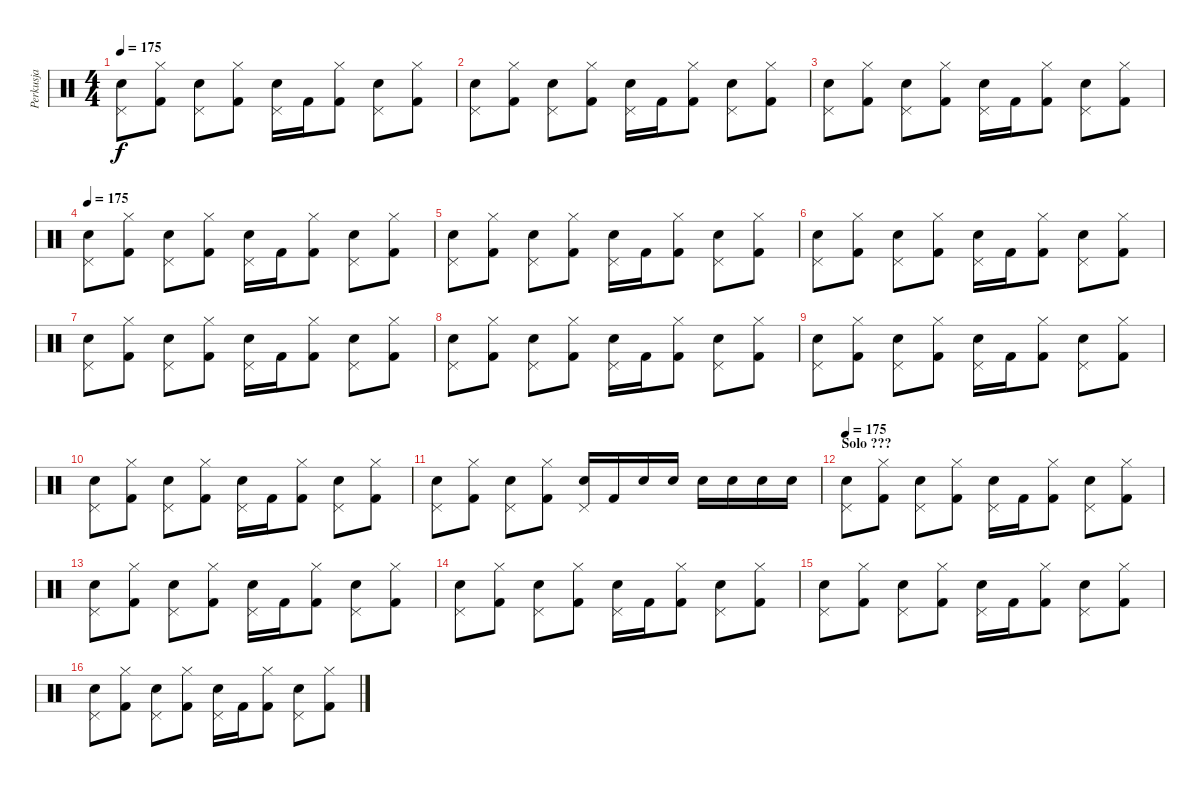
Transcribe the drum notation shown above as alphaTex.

\track ("Perkusja" "Perkusja") {instrument percussion}
\staff {score}
\articulation defaults
\ts (4 4)
\tempo 175
\clef neutral
\ks c
("Snare (hit) 2" "Pedal Hi-Hat (hit)").8{dy f} ("Kick (hit) 2" "Hi-Hat (closed)").8 ("Snare (hit) 2" "Pedal Hi-Hat (hit)").8 ("Kick (hit) 2" "Hi-Hat (closed)").8 ("Snare (hit) 2" "Pedal Hi-Hat (hit)").16 "Kick (hit) 2".16 ("Kick (hit) 2" "Hi-Hat (closed)").8 ("Snare (hit) 2" "Pedal Hi-Hat (hit)").8 ("Kick (hit) 2" "Hi-Hat (closed)").8 |
("Snare (hit) 2" "Pedal Hi-Hat (hit)").8 ("Kick (hit) 2" "Hi-Hat (closed)").8 ("Snare (hit) 2" "Pedal Hi-Hat (hit)").8 ("Kick (hit) 2" "Hi-Hat (closed)").8 ("Snare (hit) 2" "Pedal Hi-Hat (hit)").16 "Kick (hit) 2".16 ("Kick (hit) 2" "Hi-Hat (closed)").8 ("Snare (hit) 2" "Pedal Hi-Hat (hit)").8 ("Kick (hit) 2" "Hi-Hat (closed)").8 |
("Snare (hit) 2" "Pedal Hi-Hat (hit)").8 ("Kick (hit) 2" "Hi-Hat (closed)").8 ("Snare (hit) 2" "Pedal Hi-Hat (hit)").8 ("Kick (hit) 2" "Hi-Hat (closed)").8 ("Snare (hit) 2" "Pedal Hi-Hat (hit)").16 "Kick (hit) 2".16 ("Kick (hit) 2" "Hi-Hat (closed)").8 ("Snare (hit) 2" "Pedal Hi-Hat (hit)").8 ("Kick (hit) 2" "Hi-Hat (closed)").8 |
\tempo 175
("Snare (hit) 2" "Pedal Hi-Hat (hit)").8 ("Kick (hit) 2" "Hi-Hat (closed)").8 ("Snare (hit) 2" "Pedal Hi-Hat (hit)").8 ("Kick (hit) 2" "Hi-Hat (closed)").8 ("Snare (hit) 2" "Pedal Hi-Hat (hit)").16 "Kick (hit) 2".16 ("Kick (hit) 2" "Hi-Hat (closed)").8 ("Snare (hit) 2" "Pedal Hi-Hat (hit)").8 ("Kick (hit) 2" "Hi-Hat (closed)").8 |
("Snare (hit) 2" "Pedal Hi-Hat (hit)").8 ("Kick (hit) 2" "Hi-Hat (closed)").8 ("Snare (hit) 2" "Pedal Hi-Hat (hit)").8 ("Kick (hit) 2" "Hi-Hat (closed)").8 ("Snare (hit) 2" "Pedal Hi-Hat (hit)").16 "Kick (hit) 2".16 ("Kick (hit) 2" "Hi-Hat (closed)").8 ("Snare (hit) 2" "Pedal Hi-Hat (hit)").8 ("Kick (hit) 2" "Hi-Hat (closed)").8 |
("Snare (hit) 2" "Pedal Hi-Hat (hit)").8 ("Kick (hit) 2" "Hi-Hat (closed)").8 ("Snare (hit) 2" "Pedal Hi-Hat (hit)").8 ("Kick (hit) 2" "Hi-Hat (closed)").8 ("Snare (hit) 2" "Pedal Hi-Hat (hit)").16 "Kick (hit) 2".16 ("Kick (hit) 2" "Hi-Hat (closed)").8 ("Snare (hit) 2" "Pedal Hi-Hat (hit)").8 ("Kick (hit) 2" "Hi-Hat (closed)").8 |
("Snare (hit) 2" "Pedal Hi-Hat (hit)").8 ("Kick (hit) 2" "Hi-Hat (closed)").8 ("Snare (hit) 2" "Pedal Hi-Hat (hit)").8 ("Kick (hit) 2" "Hi-Hat (closed)").8 ("Snare (hit) 2" "Pedal Hi-Hat (hit)").16 "Kick (hit) 2".16 ("Kick (hit) 2" "Hi-Hat (closed)").8 ("Snare (hit) 2" "Pedal Hi-Hat (hit)").8 ("Kick (hit) 2" "Hi-Hat (closed)").8 |
("Snare (hit) 2" "Pedal Hi-Hat (hit)").8 ("Kick (hit) 2" "Hi-Hat (closed)").8 ("Snare (hit) 2" "Pedal Hi-Hat (hit)").8 ("Kick (hit) 2" "Hi-Hat (closed)").8 ("Snare (hit) 2" "Pedal Hi-Hat (hit)").16 "Kick (hit) 2".16 ("Kick (hit) 2" "Hi-Hat (closed)").8 ("Snare (hit) 2" "Pedal Hi-Hat (hit)").8 ("Kick (hit) 2" "Hi-Hat (closed)").8 |
("Snare (hit) 2" "Pedal Hi-Hat (hit)").8 ("Kick (hit) 2" "Hi-Hat (closed)").8 ("Snare (hit) 2" "Pedal Hi-Hat (hit)").8 ("Kick (hit) 2" "Hi-Hat (closed)").8 ("Snare (hit) 2" "Pedal Hi-Hat (hit)").16 "Kick (hit) 2".16 ("Kick (hit) 2" "Hi-Hat (closed)").8 ("Snare (hit) 2" "Pedal Hi-Hat (hit)").8 ("Kick (hit) 2" "Hi-Hat (closed)").8 |
("Snare (hit) 2" "Pedal Hi-Hat (hit)").8 ("Kick (hit) 2" "Hi-Hat (closed)").8 ("Snare (hit) 2" "Pedal Hi-Hat (hit)").8 ("Kick (hit) 2" "Hi-Hat (closed)").8 ("Snare (hit) 2" "Pedal Hi-Hat (hit)").16 "Kick (hit) 2".16 ("Kick (hit) 2" "Hi-Hat (closed)").8 ("Snare (hit) 2" "Pedal Hi-Hat (hit)").8 ("Kick (hit) 2" "Hi-Hat (closed)").8 |
("Snare (hit) 2" "Pedal Hi-Hat (hit)").8 ("Kick (hit) 2" "Hi-Hat (closed)").8 ("Snare (hit) 2" "Pedal Hi-Hat (hit)").8 ("Kick (hit) 2" "Hi-Hat (closed)").8 ("Snare (hit) 2" "Pedal Hi-Hat (hit)").16 "Kick (hit) 2".16 "Snare (hit) 2".16 "Snare (hit) 2".16 "Snare (hit) 2".16 "Snare (hit) 2".16 "Snare (hit) 2".16 "Snare (hit) 2".16 |
\section ("" "Solo ???")
\tempo 175
("Snare (hit) 2" "Pedal Hi-Hat (hit)").8 ("Kick (hit) 2" "Hi-Hat (closed)").8 ("Snare (hit) 2" "Pedal Hi-Hat (hit)").8 ("Kick (hit) 2" "Hi-Hat (closed)").8 ("Snare (hit) 2" "Pedal Hi-Hat (hit)").16 "Kick (hit) 2".16 ("Kick (hit) 2" "Hi-Hat (closed)").8 ("Snare (hit) 2" "Pedal Hi-Hat (hit)").8 ("Kick (hit) 2" "Hi-Hat (closed)").8 |
("Snare (hit) 2" "Pedal Hi-Hat (hit)").8 ("Kick (hit) 2" "Hi-Hat (closed)").8 ("Snare (hit) 2" "Pedal Hi-Hat (hit)").8 ("Kick (hit) 2" "Hi-Hat (closed)").8 ("Snare (hit) 2" "Pedal Hi-Hat (hit)").16 "Kick (hit) 2".16 ("Kick (hit) 2" "Hi-Hat (closed)").8 ("Snare (hit) 2" "Pedal Hi-Hat (hit)").8 ("Kick (hit) 2" "Hi-Hat (closed)").8 |
("Snare (hit) 2" "Pedal Hi-Hat (hit)").8 ("Kick (hit) 2" "Hi-Hat (closed)").8 ("Snare (hit) 2" "Pedal Hi-Hat (hit)").8 ("Kick (hit) 2" "Hi-Hat (closed)").8 ("Snare (hit) 2" "Pedal Hi-Hat (hit)").16 "Kick (hit) 2".16 ("Kick (hit) 2" "Hi-Hat (closed)").8 ("Snare (hit) 2" "Pedal Hi-Hat (hit)").8 ("Kick (hit) 2" "Hi-Hat (closed)").8 |
("Snare (hit) 2" "Pedal Hi-Hat (hit)").8 ("Kick (hit) 2" "Hi-Hat (closed)").8 ("Snare (hit) 2" "Pedal Hi-Hat (hit)").8 ("Kick (hit) 2" "Hi-Hat (closed)").8 ("Snare (hit) 2" "Pedal Hi-Hat (hit)").16 "Kick (hit) 2".16 ("Kick (hit) 2" "Hi-Hat (closed)").8 ("Snare (hit) 2" "Pedal Hi-Hat (hit)").8 ("Kick (hit) 2" "Hi-Hat (closed)").8 |
("Snare (hit) 2" "Pedal Hi-Hat (hit)").8 ("Kick (hit) 2" "Hi-Hat (closed)").8 ("Snare (hit) 2" "Pedal Hi-Hat (hit)").8 ("Kick (hit) 2" "Hi-Hat (closed)").8 ("Snare (hit) 2" "Pedal Hi-Hat (hit)").16 "Kick (hit) 2".16 ("Kick (hit) 2" "Hi-Hat (closed)").8 ("Snare (hit) 2" "Pedal Hi-Hat (hit)").8 ("Kick (hit) 2" "Hi-Hat (closed)").8
